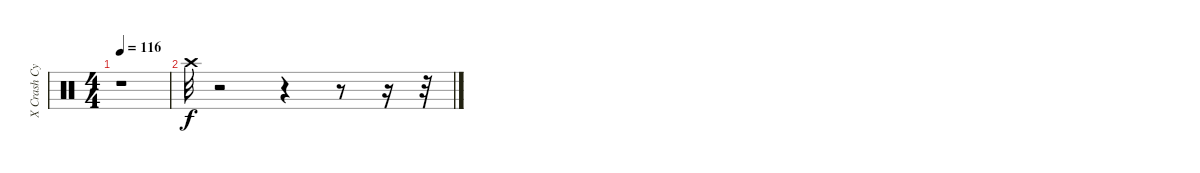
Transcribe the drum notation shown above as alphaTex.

\track ("X Crash Cymbal      " "X Crash Cy") {instrument percussion}
\staff {score}
\articulation defaults
\ts (4 4)
\tempo 116
\clef neutral
\ks c
r.1{dy f} |
"Crash high (hit)".32 r.2 r.4 r.8 r.16 r.32
